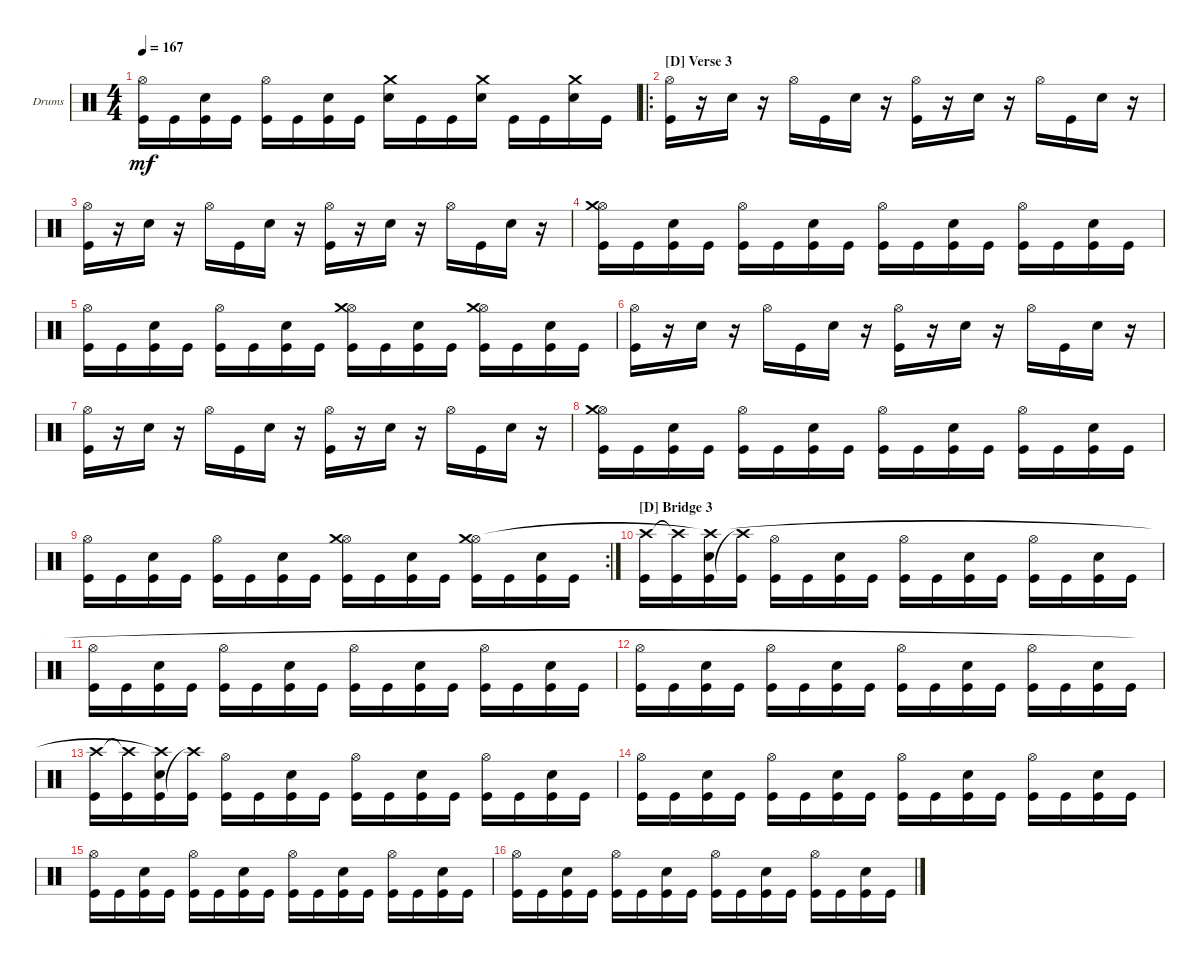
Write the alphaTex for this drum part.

\defaultSystemsLayout 4
\bracketExtendMode groupsimilarinstruments
\firstSystemTrackNameOrientation horizontal
\otherSystemsTrackNameOrientation horizontal
\track ("Drumkit" "Drums") {instrument percussion}
\staff {score}
\articulation defaults
\ts (4 4)
\tempo 167
\clef neutral
\ks c
("Kick (hit)" "Hi-Hat (open)").16{dy mf} "Kick (hit)".16 ("Snare (hit) 2" "Kick (hit)").16 "Kick (hit)".16 ("Hi-Hat (open)" "Kick (hit)").16 "Kick (hit)".16 ("Kick (hit)" "Snare (hit) 2").16 "Kick (hit)".16 ("Snare (hit) 2" "Crash medium (hit)").16 "Kick (hit)".16 "Kick (hit)".16 ("Snare (hit) 2" "Crash medium (hit)").16 "Kick (hit)".16 "Kick (hit)".16 ("Snare (hit) 2" "Crash medium (hit)").16 "Kick (hit)".16 |
\ro
\section ("D" "Verse 3")
("Kick (hit)" "Hi-Hat (open)").16 r.16 "Snare (hit) 2".16 r.16 "Hi-Hat (open)".16 "Kick (hit)".16 "Snare (hit) 2".16 r.16 ("Kick (hit)" "Hi-Hat (open)").16 r.16 "Snare (hit) 2".16 r.16 "Hi-Hat (open)".16 "Kick (hit)".16 "Snare (hit) 2".16 r.16 |
("Kick (hit)" "Hi-Hat (open)").16 r.16 "Snare (hit) 2".16 r.16 "Hi-Hat (open)".16 "Kick (hit)".16 "Snare (hit) 2".16 r.16 ("Kick (hit)" "Hi-Hat (open)").16 r.16 "Snare (hit) 2".16 r.16 "Hi-Hat (open)".16 "Kick (hit)".16 "Snare (hit) 2".16 r.16 |
("Kick (hit)" "Hi-Hat (open)" "Crash medium (hit)").16 "Kick (hit)".16 ("Snare (hit) 2" "Kick (hit)").16 "Kick (hit)".16 ("Hi-Hat (open)" "Kick (hit)").16 "Kick (hit)".16 ("Kick (hit)" "Snare (hit) 2").16 "Kick (hit)".16 ("Kick (hit)" "Hi-Hat (open)").16 "Kick (hit)".16 ("Kick (hit)" "Snare (hit) 2").16 "Kick (hit)".16 ("Kick (hit)" "Hi-Hat (open)").16 "Kick (hit)".16 ("Kick (hit)" "Snare (hit) 2").16 "Kick (hit)".16 |
("Kick (hit)" "Hi-Hat (open)").16 "Kick (hit)".16 ("Snare (hit) 2" "Kick (hit)").16 "Kick (hit)".16 ("Hi-Hat (open)" "Kick (hit)").16 "Kick (hit)".16 ("Kick (hit)" "Snare (hit) 2").16 "Kick (hit)".16 ("Kick (hit)" "Hi-Hat (open)" "Crash medium (hit)").16 "Kick (hit)".16 ("Snare (hit) 2" "Kick (hit)").16 "Kick (hit)".16 ("Hi-Hat (open)" "Kick (hit)" "Crash medium (hit)").16 "Kick (hit)".16 ("Kick (hit)" "Snare (hit) 2").16 "Kick (hit)".16 |
("Kick (hit)" "Hi-Hat (open)").16 r.16 "Snare (hit) 2".16 r.16 "Hi-Hat (open)".16 "Kick (hit)".16 "Snare (hit) 2".16 r.16 ("Kick (hit)" "Hi-Hat (open)").16 r.16 "Snare (hit) 2".16 r.16 "Hi-Hat (open)".16 "Kick (hit)".16 "Snare (hit) 2".16 r.16 |
("Kick (hit)" "Hi-Hat (open)").16 r.16 "Snare (hit) 2".16 r.16 "Hi-Hat (open)".16 "Kick (hit)".16 "Snare (hit) 2".16 r.16 ("Kick (hit)" "Hi-Hat (open)").16 r.16 "Snare (hit) 2".16 r.16 "Hi-Hat (open)".16 "Kick (hit)".16 "Snare (hit) 2".16 r.16 |
("Kick (hit)" "Hi-Hat (open)" "Crash medium (hit)").16 "Kick (hit)".16 ("Snare (hit) 2" "Kick (hit)").16 "Kick (hit)".16 ("Hi-Hat (open)" "Kick (hit)").16 "Kick (hit)".16 ("Kick (hit)" "Snare (hit) 2").16 "Kick (hit)".16 ("Kick (hit)" "Hi-Hat (open)").16 "Kick (hit)".16 ("Kick (hit)" "Snare (hit) 2").16 "Kick (hit)".16 ("Kick (hit)" "Hi-Hat (open)").16 "Kick (hit)".16 ("Kick (hit)" "Snare (hit) 2").16 "Kick (hit)".16 |
\rc 2
("Kick (hit)" "Hi-Hat (open)").16 "Kick (hit)".16 ("Snare (hit) 2" "Kick (hit)").16 "Kick (hit)".16 ("Hi-Hat (open)" "Kick (hit)").16 "Kick (hit)".16 ("Kick (hit)" "Snare (hit) 2").16 "Kick (hit)".16 ("Kick (hit)" "Hi-Hat (open)" "Crash medium (hit)").16 "Kick (hit)".16 ("Snare (hit) 2" "Kick (hit)").16 "Kick (hit)".16 ("Hi-Hat (open)" "Kick (hit)" "Crash medium (hit)").16 "Kick (hit)".16 ("Kick (hit)" "Snare (hit) 2").16 "Kick (hit)".16 |
\section ("D" "Bridge 3")
("Kick (hit)" "Crash high (hit)").16 ("Kick (hit)" "Crash high (hit)"{t}).16 ("Snare (hit) 2" "Kick (hit)" "Crash high (hit)"{t}).16 ("Kick (hit)" "Crash high (hit)"{t}).16 ("Hi-Hat (open)" "Kick (hit)").16 "Kick (hit)".16 ("Kick (hit)" "Snare (hit) 2").16 "Kick (hit)".16 ("Kick (hit)" "Hi-Hat (open)").16 "Kick (hit)".16 ("Kick (hit)" "Snare (hit) 2").16 "Kick (hit)".16 ("Kick (hit)" "Hi-Hat (open)").16 "Kick (hit)".16 ("Kick (hit)" "Snare (hit) 2").16 "Kick (hit)".16 |
("Kick (hit)" "Hi-Hat (open)").16 "Kick (hit)".16 ("Snare (hit) 2" "Kick (hit)").16 "Kick (hit)".16 ("Hi-Hat (open)" "Kick (hit)").16 "Kick (hit)".16 ("Kick (hit)" "Snare (hit) 2").16 "Kick (hit)".16 ("Kick (hit)" "Hi-Hat (open)").16 "Kick (hit)".16 ("Kick (hit)" "Snare (hit) 2").16 "Kick (hit)".16 ("Kick (hit)" "Hi-Hat (open)").16 "Kick (hit)".16 ("Kick (hit)" "Snare (hit) 2").16 "Kick (hit)".16 |
("Kick (hit)" "Hi-Hat (open)").16 "Kick (hit)".16 ("Snare (hit) 2" "Kick (hit)").16 "Kick (hit)".16 ("Hi-Hat (open)" "Kick (hit)").16 "Kick (hit)".16 ("Kick (hit)" "Snare (hit) 2").16 "Kick (hit)".16 ("Kick (hit)" "Hi-Hat (open)").16 "Kick (hit)".16 ("Kick (hit)" "Snare (hit) 2").16 "Kick (hit)".16 ("Kick (hit)" "Hi-Hat (open)").16 "Kick (hit)".16 ("Kick (hit)" "Snare (hit) 2").16 "Kick (hit)".16 |
("Kick (hit)" "Crash high (hit)").16 ("Kick (hit)" "Crash high (hit)"{t}).16 ("Snare (hit) 2" "Kick (hit)" "Crash high (hit)"{t}).16 ("Kick (hit)" "Crash high (hit)"{t}).16 ("Hi-Hat (open)" "Kick (hit)").16 "Kick (hit)".16 ("Kick (hit)" "Snare (hit) 2").16 "Kick (hit)".16 ("Kick (hit)" "Hi-Hat (open)").16 "Kick (hit)".16 ("Kick (hit)" "Snare (hit) 2").16 "Kick (hit)".16 ("Kick (hit)" "Hi-Hat (open)").16 "Kick (hit)".16 ("Kick (hit)" "Snare (hit) 2").16 "Kick (hit)".16 |
("Kick (hit)" "Hi-Hat (open)").16 "Kick (hit)".16 ("Snare (hit) 2" "Kick (hit)").16 "Kick (hit)".16 ("Hi-Hat (open)" "Kick (hit)").16 "Kick (hit)".16 ("Kick (hit)" "Snare (hit) 2").16 "Kick (hit)".16 ("Kick (hit)" "Hi-Hat (open)").16 "Kick (hit)".16 ("Kick (hit)" "Snare (hit) 2").16 "Kick (hit)".16 ("Kick (hit)" "Hi-Hat (open)").16 "Kick (hit)".16 ("Kick (hit)" "Snare (hit) 2").16 "Kick (hit)".16 |
("Kick (hit)" "Hi-Hat (open)").16 "Kick (hit)".16 ("Snare (hit) 2" "Kick (hit)").16 "Kick (hit)".16 ("Hi-Hat (open)" "Kick (hit)").16 "Kick (hit)".16 ("Kick (hit)" "Snare (hit) 2").16 "Kick (hit)".16 ("Kick (hit)" "Hi-Hat (open)").16 "Kick (hit)".16 ("Kick (hit)" "Snare (hit) 2").16 "Kick (hit)".16 ("Kick (hit)" "Hi-Hat (open)").16 "Kick (hit)".16 ("Kick (hit)" "Snare (hit) 2").16 "Kick (hit)".16 |
("Kick (hit)" "Hi-Hat (open)").16 "Kick (hit)".16 ("Snare (hit) 2" "Kick (hit)").16 "Kick (hit)".16 ("Hi-Hat (open)" "Kick (hit)").16 "Kick (hit)".16 ("Kick (hit)" "Snare (hit) 2").16 "Kick (hit)".16 ("Kick (hit)" "Hi-Hat (open)").16 "Kick (hit)".16 ("Kick (hit)" "Snare (hit) 2").16 "Kick (hit)".16 ("Kick (hit)" "Hi-Hat (open)").16 "Kick (hit)".16 ("Kick (hit)" "Snare (hit) 2").16 "Kick (hit)".16
